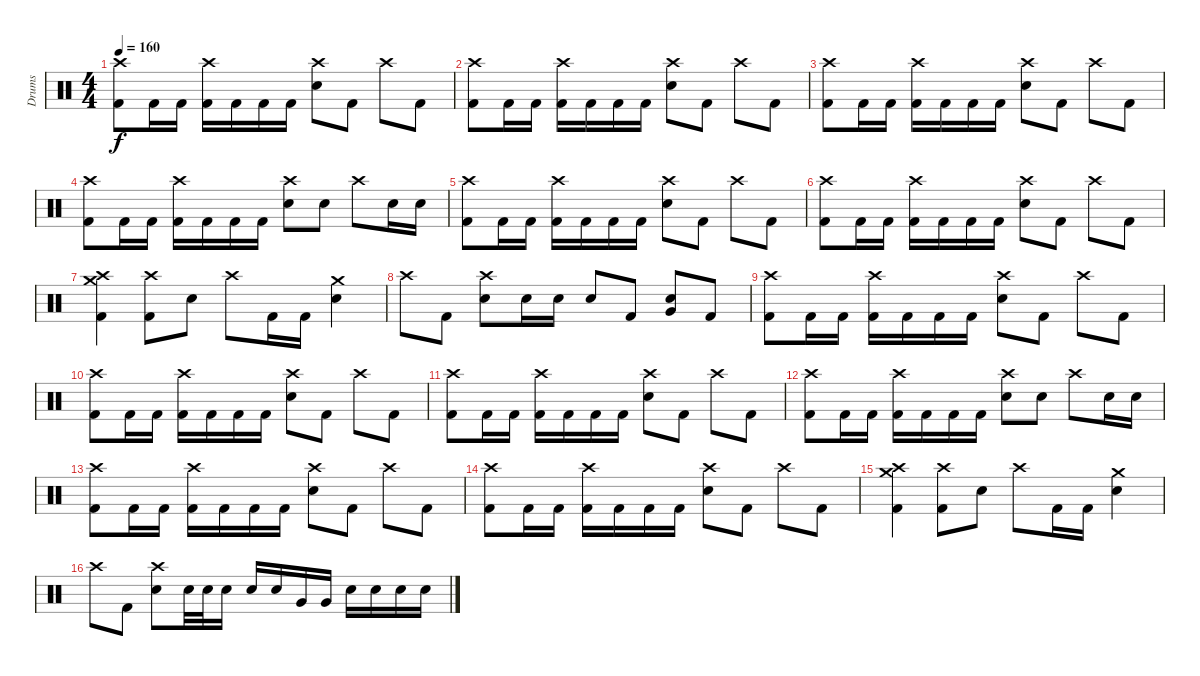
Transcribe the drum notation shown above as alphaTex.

\track ("Drums" "Drums") {instrument percussion}
\staff {score}
\articulation defaults
\ts (4 4)
\tempo 160
\clef neutral
\ks c
("Crash high (hit)" "Kick (hit) 2").8{dy f volume 13} "Kick (hit) 2".16 "Kick (hit) 2".16 ("Crash high (hit)" "Kick (hit) 2").16 "Kick (hit) 2".16 "Kick (hit) 2".16 "Kick (hit) 2".16 ("Crash high (hit)" "Electric Snare (hit)").8 "Kick (hit) 2".8 "Crash high (hit)".8 "Kick (hit) 2".8 |
("Crash high (hit)" "Kick (hit) 2").8 "Kick (hit) 2".16 "Kick (hit) 2".16 ("Crash high (hit)" "Kick (hit) 2").16 "Kick (hit) 2".16 "Kick (hit) 2".16 "Kick (hit) 2".16 ("Crash high (hit)" "Electric Snare (hit)").8 "Kick (hit) 2".8 "Crash high (hit)".8 "Kick (hit) 2".8 |
("Crash high (hit)" "Kick (hit) 2").8 "Kick (hit) 2".16 "Kick (hit) 2".16 ("Crash high (hit)" "Kick (hit) 2").16 "Kick (hit) 2".16 "Kick (hit) 2".16 "Kick (hit) 2".16 ("Crash high (hit)" "Electric Snare (hit)").8 "Kick (hit) 2".8 "Crash high (hit)".8 "Kick (hit) 2".8 |
("Crash high (hit)" "Kick (hit) 2").8 "Kick (hit) 2".16 "Kick (hit) 2".16 ("Crash high (hit)" "Kick (hit) 2").16 "Kick (hit) 2".16 "Kick (hit) 2".16 "Kick (hit) 2".16 ("Crash high (hit)" "Electric Snare (hit)").8 "Electric Snare (hit)".8 "Crash high (hit)".8 "Electric Snare (hit)".16 "Electric Snare (hit)".16 |
("Crash high (hit)" "Kick (hit) 2").8 "Kick (hit) 2".16 "Kick (hit) 2".16 ("Crash high (hit)" "Kick (hit) 2").16 "Kick (hit) 2".16 "Kick (hit) 2".16 "Kick (hit) 2".16 ("Crash high (hit)" "Electric Snare (hit)").8 "Kick (hit) 2".8 "Crash high (hit)".8 "Kick (hit) 2".8 |
("Crash high (hit)" "Kick (hit) 2").8 "Kick (hit) 2".16 "Kick (hit) 2".16 ("Crash high (hit)" "Kick (hit) 2").16 "Kick (hit) 2".16 "Kick (hit) 2".16 "Kick (hit) 2".16 ("Crash high (hit)" "Electric Snare (hit)").8 "Kick (hit) 2".8 "Crash high (hit)".8 "Kick (hit) 2".8 |
("Crash high (hit)" "Crash medium (hit)" "Kick (hit) 2").4 ("Crash high (hit)" "Kick (hit) 2").8 "Electric Snare (hit)".8 "Crash high (hit)".8 "Kick (hit) 2".16 "Kick (hit) 2".16 ("Crash medium (hit)" "Electric Snare (hit)").4 |
"Crash high (hit)".8 "Kick (hit) 2".8 ("Crash high (hit)" "Electric Snare (hit)").8 "Electric Snare (hit)".16 "Electric Snare (hit)".16 "Electric Snare (hit)".8 "Kick (hit) 2".8 ("Very Low Tom (hit)" "Electric Snare (hit)").8 "Kick (hit) 2".8 |
("Crash high (hit)" "Kick (hit) 2").8 "Kick (hit) 2".16 "Kick (hit) 2".16 ("Crash high (hit)" "Kick (hit) 2").16 "Kick (hit) 2".16 "Kick (hit) 2".16 "Kick (hit) 2".16 ("Crash high (hit)" "Electric Snare (hit)").8 "Kick (hit) 2".8 "Crash high (hit)".8 "Kick (hit) 2".8 |
("Crash high (hit)" "Kick (hit) 2").8 "Kick (hit) 2".16 "Kick (hit) 2".16 ("Crash high (hit)" "Kick (hit) 2").16 "Kick (hit) 2".16 "Kick (hit) 2".16 "Kick (hit) 2".16 ("Crash high (hit)" "Electric Snare (hit)").8 "Kick (hit) 2".8 "Crash high (hit)".8 "Kick (hit) 2".8 |
("Crash high (hit)" "Kick (hit) 2").8 "Kick (hit) 2".16 "Kick (hit) 2".16 ("Crash high (hit)" "Kick (hit) 2").16 "Kick (hit) 2".16 "Kick (hit) 2".16 "Kick (hit) 2".16 ("Crash high (hit)" "Electric Snare (hit)").8 "Kick (hit) 2".8 "Crash high (hit)".8 "Kick (hit) 2".8 |
("Crash high (hit)" "Kick (hit) 2").8 "Kick (hit) 2".16 "Kick (hit) 2".16 ("Crash high (hit)" "Kick (hit) 2").16 "Kick (hit) 2".16 "Kick (hit) 2".16 "Kick (hit) 2".16 ("Crash high (hit)" "Electric Snare (hit)").8 "Electric Snare (hit)".8 "Crash high (hit)".8 "Electric Snare (hit)".16 "Electric Snare (hit)".16 |
("Crash high (hit)" "Kick (hit) 2").8 "Kick (hit) 2".16 "Kick (hit) 2".16 ("Crash high (hit)" "Kick (hit) 2").16 "Kick (hit) 2".16 "Kick (hit) 2".16 "Kick (hit) 2".16 ("Crash high (hit)" "Electric Snare (hit)").8 "Kick (hit) 2".8 "Crash high (hit)".8 "Kick (hit) 2".8 |
("Crash high (hit)" "Kick (hit) 2").8 "Kick (hit) 2".16 "Kick (hit) 2".16 ("Crash high (hit)" "Kick (hit) 2").16 "Kick (hit) 2".16 "Kick (hit) 2".16 "Kick (hit) 2".16 ("Crash high (hit)" "Electric Snare (hit)").8 "Kick (hit) 2".8 "Crash high (hit)".8 "Kick (hit) 2".8 |
("Crash high (hit)" "Crash medium (hit)" "Kick (hit) 2").4 ("Crash high (hit)" "Kick (hit) 2").8 "Electric Snare (hit)".8 "Crash high (hit)".8 "Kick (hit) 2".16 "Kick (hit) 2".16 ("Crash medium (hit)" "Electric Snare (hit)").4 |
"Crash high (hit)".8 "Kick (hit) 2".8 ("Crash high (hit)" "Electric Snare (hit)").8 "Electric Snare (hit)".32 "Electric Snare (hit)".32 "Electric Snare (hit)".16 "Electric Snare (hit)".16 "Electric Snare (hit)".16 "Very Low Tom (hit)".16 "Very Low Tom (hit)".16 "Electric Snare (hit)".16 "Electric Snare (hit)".16 "Electric Snare (hit)".16 "Electric Snare (hit)".16
